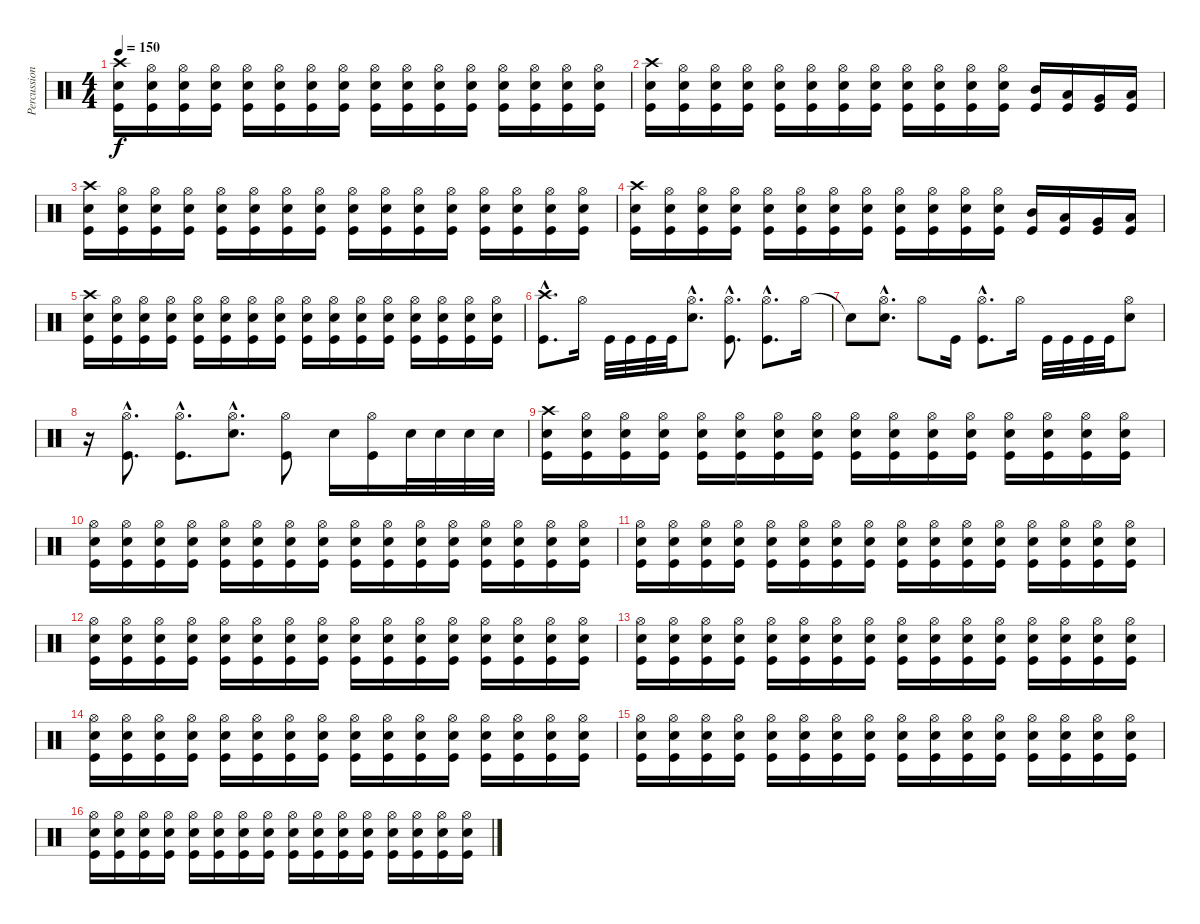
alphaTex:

\track ("Percussion" "Percussion") {instrument percussion}
\staff {score}
\articulation defaults
\ts (4 4)
\tempo 150
\clef neutral
\ks c
("Crash high (hit)" "Electric Snare (hit)" "Kick (hit)").16{dy f} ("Hi-Hat (open)" "Electric Snare (hit)" "Kick (hit)").16 ("Hi-Hat (open)" "Electric Snare (hit)" "Kick (hit)").16 ("Hi-Hat (open)" "Electric Snare (hit)" "Kick (hit)").16 ("Hi-Hat (open)" "Electric Snare (hit)" "Kick (hit)").16 ("Hi-Hat (open)" "Electric Snare (hit)" "Kick (hit)").16 ("Hi-Hat (open)" "Electric Snare (hit)" "Kick (hit)").16 ("Hi-Hat (open)" "Electric Snare (hit)" "Kick (hit)").16 ("Hi-Hat (open)" "Electric Snare (hit)" "Kick (hit)").16 ("Hi-Hat (open)" "Electric Snare (hit)" "Kick (hit)").16 ("Hi-Hat (open)" "Electric Snare (hit)" "Kick (hit)").16 ("Hi-Hat (open)" "Electric Snare (hit)" "Kick (hit)").16 ("Hi-Hat (open)" "Electric Snare (hit)" "Kick (hit)").16 ("Hi-Hat (open)" "Electric Snare (hit)" "Kick (hit)").16 ("Hi-Hat (open)" "Electric Snare (hit)" "Kick (hit)").16 ("Hi-Hat (open)" "Electric Snare (hit)" "Kick (hit)").16 |
("Crash high (hit)" "Electric Snare (hit)" "Kick (hit)").16 ("Hi-Hat (open)" "Electric Snare (hit)" "Kick (hit)").16 ("Hi-Hat (open)" "Electric Snare (hit)" "Kick (hit)").16 ("Hi-Hat (open)" "Electric Snare (hit)" "Kick (hit)").16 ("Hi-Hat (open)" "Electric Snare (hit)" "Kick (hit)").16 ("Hi-Hat (open)" "Electric Snare (hit)" "Kick (hit)").16 ("Hi-Hat (open)" "Electric Snare (hit)" "Kick (hit)").16 ("Hi-Hat (open)" "Electric Snare (hit)" "Kick (hit)").16 ("Hi-Hat (open)" "Electric Snare (hit)" "Kick (hit)").16 ("Hi-Hat (open)" "Electric Snare (hit)" "Kick (hit)").16 ("Hi-Hat (open)" "Electric Snare (hit)" "Kick (hit)").16 ("Hi-Hat (open)" "Electric Snare (hit)" "Kick (hit)").16 ("Mid Tom (hit)" "Kick (hit)").16 ("Low Tom (hit)" "Kick (hit)").16 ("Very Low Tom (hit)" "Kick (hit)").16 ("Low Floor Tom (hit)" "Kick (hit)").16 |
("Crash high (hit)" "Electric Snare (hit)" "Kick (hit)").16 ("Hi-Hat (open)" "Electric Snare (hit)" "Kick (hit)").16 ("Hi-Hat (open)" "Electric Snare (hit)" "Kick (hit)").16 ("Hi-Hat (open)" "Electric Snare (hit)" "Kick (hit)").16 ("Hi-Hat (open)" "Electric Snare (hit)" "Kick (hit)").16 ("Hi-Hat (open)" "Electric Snare (hit)" "Kick (hit)").16 ("Hi-Hat (open)" "Electric Snare (hit)" "Kick (hit)").16 ("Hi-Hat (open)" "Electric Snare (hit)" "Kick (hit)").16 ("Hi-Hat (open)" "Electric Snare (hit)" "Kick (hit)").16 ("Hi-Hat (open)" "Electric Snare (hit)" "Kick (hit)").16 ("Hi-Hat (open)" "Electric Snare (hit)" "Kick (hit)").16 ("Hi-Hat (open)" "Electric Snare (hit)" "Kick (hit)").16 ("Hi-Hat (open)" "Electric Snare (hit)" "Kick (hit)").16 ("Hi-Hat (open)" "Electric Snare (hit)" "Kick (hit)").16 ("Hi-Hat (open)" "Electric Snare (hit)" "Kick (hit)").16 ("Hi-Hat (open)" "Electric Snare (hit)" "Kick (hit)").16 |
("Crash high (hit)" "Electric Snare (hit)" "Kick (hit)").16 ("Hi-Hat (open)" "Electric Snare (hit)" "Kick (hit)").16 ("Hi-Hat (open)" "Electric Snare (hit)" "Kick (hit)").16 ("Hi-Hat (open)" "Electric Snare (hit)" "Kick (hit)").16 ("Hi-Hat (open)" "Electric Snare (hit)" "Kick (hit)").16 ("Hi-Hat (open)" "Electric Snare (hit)" "Kick (hit)").16 ("Hi-Hat (open)" "Electric Snare (hit)" "Kick (hit)").16 ("Hi-Hat (open)" "Electric Snare (hit)" "Kick (hit)").16 ("Hi-Hat (open)" "Electric Snare (hit)" "Kick (hit)").16 ("Hi-Hat (open)" "Electric Snare (hit)" "Kick (hit)").16 ("Hi-Hat (open)" "Electric Snare (hit)" "Kick (hit)").16 ("Hi-Hat (open)" "Electric Snare (hit)" "Kick (hit)").16 ("Mid Tom (hit)" "Kick (hit)").16 ("Low Tom (hit)" "Kick (hit)").16 ("Very Low Tom (hit)" "Kick (hit)").16 ("Low Floor Tom (hit)" "Kick (hit)").16 |
("Crash high (hit)" "Electric Snare (hit)" "Kick (hit)").16 ("Hi-Hat (open)" "Electric Snare (hit)" "Kick (hit)").16 ("Hi-Hat (open)" "Electric Snare (hit)" "Kick (hit)").16 ("Hi-Hat (open)" "Electric Snare (hit)" "Kick (hit)").16 ("Hi-Hat (open)" "Electric Snare (hit)" "Kick (hit)").16 ("Hi-Hat (open)" "Electric Snare (hit)" "Kick (hit)").16 ("Hi-Hat (open)" "Electric Snare (hit)" "Kick (hit)").16 ("Hi-Hat (open)" "Electric Snare (hit)" "Kick (hit)").16 ("Hi-Hat (open)" "Electric Snare (hit)" "Kick (hit)").16 ("Hi-Hat (open)" "Electric Snare (hit)" "Kick (hit)").16 ("Hi-Hat (open)" "Electric Snare (hit)" "Kick (hit)").16 ("Hi-Hat (open)" "Electric Snare (hit)" "Kick (hit)").16 ("Hi-Hat (open)" "Electric Snare (hit)" "Kick (hit)").16 ("Hi-Hat (open)" "Electric Snare (hit)" "Kick (hit)").16 ("Hi-Hat (open)" "Electric Snare (hit)" "Kick (hit)").16 ("Hi-Hat (open)" "Electric Snare (hit)" "Kick (hit)").16 |
("Crash high (hit)"{hac} "Kick (hit)"{hac}).8{d} "Hi-Hat (open)".16 "Kick (hit)".32 "Kick (hit)".32 "Kick (hit)".32 "Kick (hit)".32 ("Hi-Hat (open)"{hac} "Electric Snare (hit)"{hac}).8{d} ("Hi-Hat (open)"{hac} "Kick (hit)"{hac}).8{d} ("Hi-Hat (open)"{hac} "Kick (hit)"{hac}).8{d} "Hi-Hat (open)".16 |
"Snare (hit)"{t}.8 ("Hi-Hat (open)"{hac} "Electric Snare (hit)"{hac}).8{d} "Hi-Hat (open)".8 "Kick (hit)".16 ("Hi-Hat (open)"{hac} "Kick (hit)"{hac}).8{d} "Hi-Hat (open)".16 "Kick (hit)".32 "Kick (hit)".32 "Kick (hit)".32 "Kick (hit)".32 ("Hi-Hat (open)" "Electric Snare (hit)").8 |
r.16 ("Hi-Hat (open)"{hac} "Kick (hit)"{hac}).8{d} ("Hi-Hat (open)"{hac} "Kick (hit)"{hac}).8{d} ("Hi-Hat (open)"{hac} "Electric Snare (hit)"{hac}).8{d} ("Hi-Hat (open)" "Kick (hit)").8 "Electric Snare (hit)".16 ("Hi-Hat (open)" "Kick (hit)").16 "Electric Snare (hit)".32 "Electric Snare (hit)".32 "Electric Snare (hit)".32 "Electric Snare (hit)".32 |
("Crash high (hit)" "Electric Snare (hit)" "Kick (hit)").16 ("Hi-Hat (open)" "Electric Snare (hit)" "Kick (hit)").16 ("Hi-Hat (open)" "Electric Snare (hit)" "Kick (hit)").16 ("Hi-Hat (open)" "Electric Snare (hit)" "Kick (hit)").16 ("Hi-Hat (open)" "Electric Snare (hit)" "Kick (hit)").16 ("Hi-Hat (open)" "Electric Snare (hit)" "Kick (hit)").16 ("Hi-Hat (open)" "Electric Snare (hit)" "Kick (hit)").16 ("Hi-Hat (open)" "Electric Snare (hit)" "Kick (hit)").16 ("Hi-Hat (open)" "Electric Snare (hit)" "Kick (hit)").16 ("Hi-Hat (open)" "Electric Snare (hit)" "Kick (hit)").16 ("Hi-Hat (open)" "Electric Snare (hit)" "Kick (hit)").16 ("Hi-Hat (open)" "Electric Snare (hit)" "Kick (hit)").16 ("Hi-Hat (open)" "Electric Snare (hit)" "Kick (hit)").16 ("Hi-Hat (open)" "Electric Snare (hit)" "Kick (hit)").16 ("Hi-Hat (open)" "Electric Snare (hit)" "Kick (hit)").16 ("Hi-Hat (open)" "Electric Snare (hit)" "Kick (hit)").16 |
("Hi-Hat (open)" "Electric Snare (hit)" "Kick (hit)").16 ("Hi-Hat (open)" "Electric Snare (hit)" "Kick (hit)").16 ("Hi-Hat (open)" "Electric Snare (hit)" "Kick (hit)").16 ("Hi-Hat (open)" "Electric Snare (hit)" "Kick (hit)").16 ("Hi-Hat (open)" "Electric Snare (hit)" "Kick (hit)").16 ("Hi-Hat (open)" "Electric Snare (hit)" "Kick (hit)").16 ("Hi-Hat (open)" "Electric Snare (hit)" "Kick (hit)").16 ("Hi-Hat (open)" "Electric Snare (hit)" "Kick (hit)").16 ("Hi-Hat (open)" "Electric Snare (hit)" "Kick (hit)").16 ("Hi-Hat (open)" "Electric Snare (hit)" "Kick (hit)").16 ("Hi-Hat (open)" "Electric Snare (hit)" "Kick (hit)").16 ("Hi-Hat (open)" "Electric Snare (hit)" "Kick (hit)").16 ("Hi-Hat (open)" "Electric Snare (hit)" "Kick (hit)").16 ("Hi-Hat (open)" "Electric Snare (hit)" "Kick (hit)").16 ("Hi-Hat (open)" "Electric Snare (hit)" "Kick (hit)").16 ("Hi-Hat (open)" "Electric Snare (hit)" "Kick (hit)").16 |
("Hi-Hat (open)" "Electric Snare (hit)" "Kick (hit)").16 ("Hi-Hat (open)" "Electric Snare (hit)" "Kick (hit)").16 ("Hi-Hat (open)" "Electric Snare (hit)" "Kick (hit)").16 ("Hi-Hat (open)" "Electric Snare (hit)" "Kick (hit)").16 ("Hi-Hat (open)" "Electric Snare (hit)" "Kick (hit)").16 ("Hi-Hat (open)" "Electric Snare (hit)" "Kick (hit)").16 ("Hi-Hat (open)" "Electric Snare (hit)" "Kick (hit)").16 ("Hi-Hat (open)" "Electric Snare (hit)" "Kick (hit)").16 ("Hi-Hat (open)" "Electric Snare (hit)" "Kick (hit)").16 ("Hi-Hat (open)" "Electric Snare (hit)" "Kick (hit)").16 ("Hi-Hat (open)" "Electric Snare (hit)" "Kick (hit)").16 ("Hi-Hat (open)" "Electric Snare (hit)" "Kick (hit)").16 ("Hi-Hat (open)" "Electric Snare (hit)" "Kick (hit)").16 ("Hi-Hat (open)" "Electric Snare (hit)" "Kick (hit)").16 ("Hi-Hat (open)" "Electric Snare (hit)" "Kick (hit)").16 ("Hi-Hat (open)" "Electric Snare (hit)" "Kick (hit)").16 |
("Hi-Hat (open)" "Electric Snare (hit)" "Kick (hit)").16 ("Hi-Hat (open)" "Electric Snare (hit)" "Kick (hit)").16 ("Hi-Hat (open)" "Electric Snare (hit)" "Kick (hit)").16 ("Hi-Hat (open)" "Electric Snare (hit)" "Kick (hit)").16 ("Hi-Hat (open)" "Electric Snare (hit)" "Kick (hit)").16 ("Hi-Hat (open)" "Electric Snare (hit)" "Kick (hit)").16 ("Hi-Hat (open)" "Electric Snare (hit)" "Kick (hit)").16 ("Hi-Hat (open)" "Electric Snare (hit)" "Kick (hit)").16 ("Hi-Hat (open)" "Electric Snare (hit)" "Kick (hit)").16 ("Hi-Hat (open)" "Electric Snare (hit)" "Kick (hit)").16 ("Hi-Hat (open)" "Electric Snare (hit)" "Kick (hit)").16 ("Hi-Hat (open)" "Electric Snare (hit)" "Kick (hit)").16 ("Hi-Hat (open)" "Electric Snare (hit)" "Kick (hit)").16 ("Hi-Hat (open)" "Electric Snare (hit)" "Kick (hit)").16 ("Hi-Hat (open)" "Electric Snare (hit)" "Kick (hit)").16 ("Hi-Hat (open)" "Electric Snare (hit)" "Kick (hit)").16 |
("Hi-Hat (open)" "Electric Snare (hit)" "Kick (hit)").16 ("Hi-Hat (open)" "Electric Snare (hit)" "Kick (hit)").16 ("Hi-Hat (open)" "Electric Snare (hit)" "Kick (hit)").16 ("Hi-Hat (open)" "Electric Snare (hit)" "Kick (hit)").16 ("Hi-Hat (open)" "Electric Snare (hit)" "Kick (hit)").16 ("Hi-Hat (open)" "Electric Snare (hit)" "Kick (hit)").16 ("Hi-Hat (open)" "Electric Snare (hit)" "Kick (hit)").16 ("Hi-Hat (open)" "Electric Snare (hit)" "Kick (hit)").16 ("Hi-Hat (open)" "Electric Snare (hit)" "Kick (hit)").16 ("Hi-Hat (open)" "Electric Snare (hit)" "Kick (hit)").16 ("Hi-Hat (open)" "Electric Snare (hit)" "Kick (hit)").16 ("Hi-Hat (open)" "Electric Snare (hit)" "Kick (hit)").16 ("Hi-Hat (open)" "Electric Snare (hit)" "Kick (hit)").16 ("Hi-Hat (open)" "Electric Snare (hit)" "Kick (hit)").16 ("Hi-Hat (open)" "Electric Snare (hit)" "Kick (hit)").16 ("Hi-Hat (open)" "Electric Snare (hit)" "Kick (hit)").16 |
("Hi-Hat (open)" "Electric Snare (hit)" "Kick (hit)").16 ("Hi-Hat (open)" "Electric Snare (hit)" "Kick (hit)").16 ("Hi-Hat (open)" "Electric Snare (hit)" "Kick (hit)").16 ("Hi-Hat (open)" "Electric Snare (hit)" "Kick (hit)").16 ("Hi-Hat (open)" "Electric Snare (hit)" "Kick (hit)").16 ("Hi-Hat (open)" "Electric Snare (hit)" "Kick (hit)").16 ("Hi-Hat (open)" "Electric Snare (hit)" "Kick (hit)").16 ("Hi-Hat (open)" "Electric Snare (hit)" "Kick (hit)").16 ("Hi-Hat (open)" "Electric Snare (hit)" "Kick (hit)").16 ("Hi-Hat (open)" "Electric Snare (hit)" "Kick (hit)").16 ("Hi-Hat (open)" "Electric Snare (hit)" "Kick (hit)").16 ("Hi-Hat (open)" "Electric Snare (hit)" "Kick (hit)").16 ("Hi-Hat (open)" "Electric Snare (hit)" "Kick (hit)").16 ("Hi-Hat (open)" "Electric Snare (hit)" "Kick (hit)").16 ("Hi-Hat (open)" "Electric Snare (hit)" "Kick (hit)").16 ("Hi-Hat (open)" "Electric Snare (hit)" "Kick (hit)").16 |
("Hi-Hat (open)" "Electric Snare (hit)" "Kick (hit)").16 ("Hi-Hat (open)" "Electric Snare (hit)" "Kick (hit)").16 ("Hi-Hat (open)" "Electric Snare (hit)" "Kick (hit)").16 ("Hi-Hat (open)" "Electric Snare (hit)" "Kick (hit)").16 ("Hi-Hat (open)" "Electric Snare (hit)" "Kick (hit)").16 ("Hi-Hat (open)" "Electric Snare (hit)" "Kick (hit)").16 ("Hi-Hat (open)" "Electric Snare (hit)" "Kick (hit)").16 ("Hi-Hat (open)" "Electric Snare (hit)" "Kick (hit)").16 ("Hi-Hat (open)" "Electric Snare (hit)" "Kick (hit)").16 ("Hi-Hat (open)" "Electric Snare (hit)" "Kick (hit)").16 ("Hi-Hat (open)" "Electric Snare (hit)" "Kick (hit)").16 ("Hi-Hat (open)" "Electric Snare (hit)" "Kick (hit)").16 ("Hi-Hat (open)" "Electric Snare (hit)" "Kick (hit)").16 ("Hi-Hat (open)" "Electric Snare (hit)" "Kick (hit)").16 ("Hi-Hat (open)" "Electric Snare (hit)" "Kick (hit)").16 ("Hi-Hat (open)" "Electric Snare (hit)" "Kick (hit)").16 |
("Hi-Hat (open)" "Electric Snare (hit)" "Kick (hit)").16 ("Hi-Hat (open)" "Electric Snare (hit)" "Kick (hit)").16 ("Hi-Hat (open)" "Electric Snare (hit)" "Kick (hit)").16 ("Hi-Hat (open)" "Electric Snare (hit)" "Kick (hit)").16 ("Hi-Hat (open)" "Electric Snare (hit)" "Kick (hit)").16 ("Hi-Hat (open)" "Electric Snare (hit)" "Kick (hit)").16 ("Hi-Hat (open)" "Electric Snare (hit)" "Kick (hit)").16 ("Hi-Hat (open)" "Electric Snare (hit)" "Kick (hit)").16 ("Hi-Hat (open)" "Electric Snare (hit)" "Kick (hit)").16 ("Hi-Hat (open)" "Electric Snare (hit)" "Kick (hit)").16 ("Hi-Hat (open)" "Electric Snare (hit)" "Kick (hit)").16 ("Hi-Hat (open)" "Electric Snare (hit)" "Kick (hit)").16 ("Hi-Hat (open)" "Electric Snare (hit)" "Kick (hit)").16 ("Hi-Hat (open)" "Electric Snare (hit)" "Kick (hit)").16 ("Hi-Hat (open)" "Electric Snare (hit)" "Kick (hit)").16 ("Hi-Hat (open)" "Electric Snare (hit)" "Kick (hit)").16
